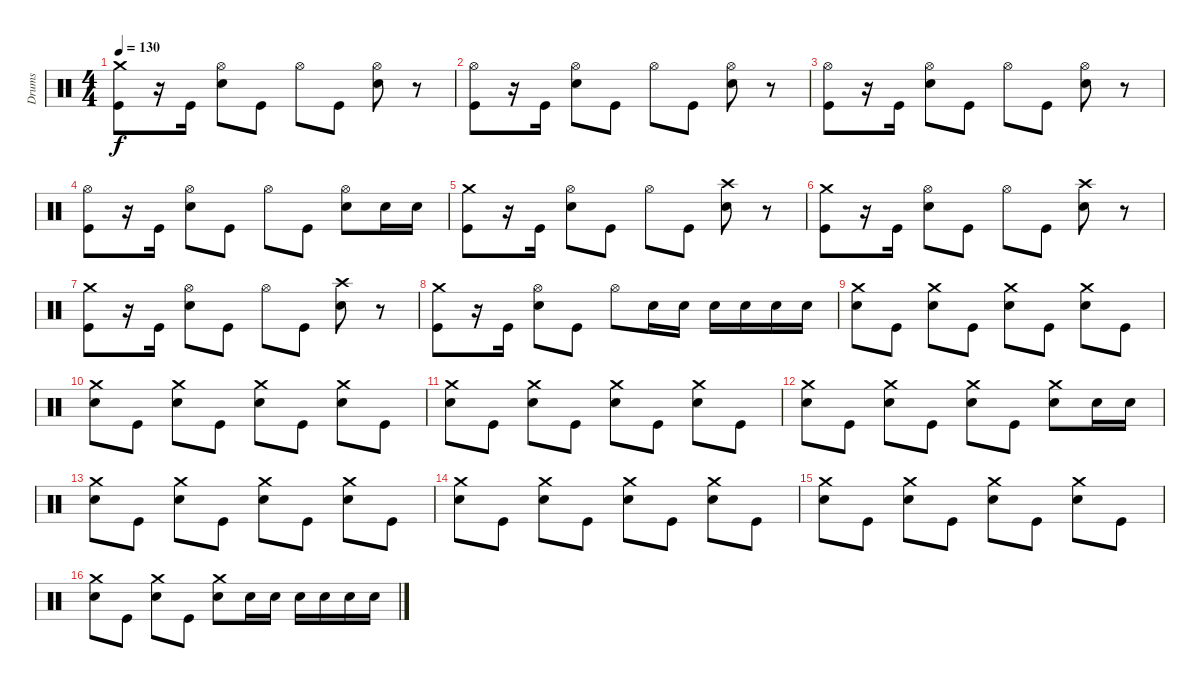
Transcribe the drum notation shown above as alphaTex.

\track ("Drums" "Drums") {instrument percussion}
\staff {score}
\articulation defaults
\ts (4 4)
\tempo 130
\clef neutral
\ks c
("Crash medium (hit)" "Kick (hit)").8{dy f} r.16 "Kick (hit)".16 ("Hi-Hat (open)" "Snare (hit) 2").8 "Kick (hit)".8 "Hi-Hat (open)".8 "Kick (hit)".8 ("Hi-Hat (open)" "Snare (hit) 2").8 r.8 |
("Hi-Hat (open)" "Kick (hit)").8 r.16 "Kick (hit)".16 ("Hi-Hat (open)" "Snare (hit) 2").8 "Kick (hit)".8 "Hi-Hat (open)".8 "Kick (hit)".8 ("Hi-Hat (open)" "Snare (hit) 2").8 r.8 |
("Hi-Hat (open)" "Kick (hit)").8 r.16 "Kick (hit)".16 ("Hi-Hat (open)" "Snare (hit) 2").8 "Kick (hit)".8 "Hi-Hat (open)".8 "Kick (hit)".8 ("Hi-Hat (open)" "Snare (hit) 2").8 r.8 |
("Hi-Hat (open)" "Kick (hit)").8 r.16 "Kick (hit)".16 ("Hi-Hat (open)" "Snare (hit) 2").8 "Kick (hit)".8 "Hi-Hat (open)".8 "Kick (hit)".8 ("Hi-Hat (open)" "Snare (hit) 2").8 "Snare (hit) 2".16 "Snare (hit) 2".16 |
("Crash medium (hit)" "Kick (hit)").8 r.16 "Kick (hit)".16 ("Hi-Hat (open)" "Snare (hit) 2").8 "Kick (hit)".8 "Hi-Hat (open)".8 "Kick (hit)".8 ("Crash high (hit)" "Snare (hit) 2").8 r.8 |
("Crash medium (hit)" "Kick (hit)").8 r.16 "Kick (hit)".16 ("Hi-Hat (open)" "Snare (hit) 2").8 "Kick (hit)".8 "Hi-Hat (open)".8 "Kick (hit)".8 ("Crash high (hit)" "Snare (hit) 2").8 r.8 |
("Crash medium (hit)" "Kick (hit)").8 r.16 "Kick (hit)".16 ("Hi-Hat (open)" "Snare (hit) 2").8 "Kick (hit)".8 "Hi-Hat (open)".8 "Kick (hit)".8 ("Crash high (hit)" "Snare (hit) 2").8 r.8 |
("Crash medium (hit)" "Kick (hit)").8 r.16 "Kick (hit)".16 ("Hi-Hat (open)" "Snare (hit) 2").8 "Kick (hit)".8 "Hi-Hat (open)".8 "Snare (hit) 2".16 "Snare (hit) 2".16 "Snare (hit) 2".16 "Snare (hit) 2".16 "Snare (hit) 2".16 "Snare (hit) 2".16 |
("Crash medium (hit)" "Snare (hit) 2").8 "Kick (hit)".8 ("Crash medium (hit)" "Snare (hit) 2").8 "Kick (hit)".8 ("Crash medium (hit)" "Snare (hit) 2").8 "Kick (hit)".8 ("Crash medium (hit)" "Snare (hit) 2").8 "Kick (hit)".8 |
("Crash medium (hit)" "Snare (hit) 2").8 "Kick (hit)".8 ("Crash medium (hit)" "Snare (hit) 2").8 "Kick (hit)".8 ("Crash medium (hit)" "Snare (hit) 2").8 "Kick (hit)".8 ("Crash medium (hit)" "Snare (hit) 2").8 "Kick (hit)".8 |
("Crash medium (hit)" "Snare (hit) 2").8 "Kick (hit)".8 ("Crash medium (hit)" "Snare (hit) 2").8 "Kick (hit)".8 ("Crash medium (hit)" "Snare (hit) 2").8 "Kick (hit)".8 ("Crash medium (hit)" "Snare (hit) 2").8 "Kick (hit)".8 |
("Crash medium (hit)" "Snare (hit) 2").8 "Kick (hit)".8 ("Crash medium (hit)" "Snare (hit) 2").8 "Kick (hit)".8 ("Crash medium (hit)" "Snare (hit) 2").8 "Kick (hit)".8 ("Crash medium (hit)" "Snare (hit) 2").8 "Snare (hit) 2".16 "Snare (hit) 2".16 |
("Crash medium (hit)" "Snare (hit) 2").8 "Kick (hit)".8 ("Crash medium (hit)" "Snare (hit) 2").8 "Kick (hit)".8 ("Crash medium (hit)" "Snare (hit) 2").8 "Kick (hit)".8 ("Crash medium (hit)" "Snare (hit) 2").8 "Kick (hit)".8 |
("Crash medium (hit)" "Snare (hit) 2").8 "Kick (hit)".8 ("Crash medium (hit)" "Snare (hit) 2").8 "Kick (hit)".8 ("Crash medium (hit)" "Snare (hit) 2").8 "Kick (hit)".8 ("Crash medium (hit)" "Snare (hit) 2").8 "Kick (hit)".8 |
("Crash medium (hit)" "Snare (hit) 2").8 "Kick (hit)".8 ("Crash medium (hit)" "Snare (hit) 2").8 "Kick (hit)".8 ("Crash medium (hit)" "Snare (hit) 2").8 "Kick (hit)".8 ("Crash medium (hit)" "Snare (hit) 2").8 "Kick (hit)".8 |
("Crash medium (hit)" "Snare (hit) 2").8 "Kick (hit)".8 ("Crash medium (hit)" "Snare (hit) 2").8 "Kick (hit)".8 ("Crash medium (hit)" "Snare (hit) 2").8 "Snare (hit) 2".16 "Snare (hit) 2".16 "Snare (hit) 2".16 "Snare (hit) 2".16 "Snare (hit) 2".16 "Snare (hit) 2".16
